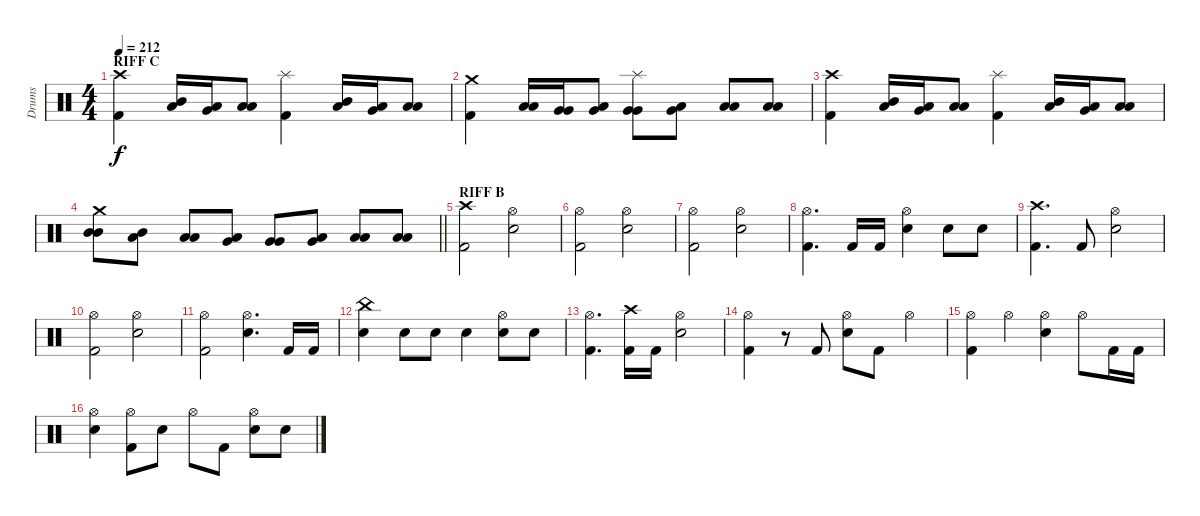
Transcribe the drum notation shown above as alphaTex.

\track ("Drums" "Drums") {instrument percussion}
\staff {score}
\articulation defaults
\ts (4 4)
\section ("" "RIFF C")
\tempo 212
\clef neutral
\ks c
("Crash high (hit)" "Kick (hit) 2").4{dy f} ("Low Tom (hit)" "Mid Tom (hit)").16 ("Very Low Tom (hit)" "Low Tom (hit)").16 ("Low Floor Tom (hit)" "Low Tom (hit)").8 ("Splash (hit)" "Kick (hit) 2").4 ("Low Tom (hit)" "Mid Tom (hit)").16 ("Very Low Tom (hit)" "Low Tom (hit)").16 ("Low Floor Tom (hit)" "Low Tom (hit)").8 |
("Crash medium (hit)" "Kick (hit) 2").4 ("Low Tom (hit)" "Low Tom (hit)").16 ("Very Low Tom (hit)" "Very Low Tom (hit)").16 ("Low Floor Tom (hit)" "Very Low Tom (hit)").8 ("Splash (hit)" "Very Low Tom (hit)" "Very Low Tom (hit)").8 ("Very Low Tom (hit)" "Low Floor Tom (hit)").8 ("Low Floor Tom (hit)" "Low Floor Tom (hit)").8 ("Low Floor Tom (hit)" "Low Floor Tom (hit)").8 |
("Crash high (hit)" "Kick (hit) 2").4 ("Low Tom (hit)" "Mid Tom (hit)").16 ("Very Low Tom (hit)" "Low Tom (hit)").16 ("Low Floor Tom (hit)" "Low Tom (hit)").8 ("Splash (hit)" "Kick (hit) 2").4 ("Low Tom (hit)" "Mid Tom (hit)").16 ("Very Low Tom (hit)" "Low Tom (hit)").16 ("Low Floor Tom (hit)" "Low Tom (hit)").8 |
\barLineRight lightlight
("Crash medium (hit)" "Mid Tom (hit)" "Mid Tom (hit)").8 ("Mid Tom (hit)" "Low Tom (hit)").8 ("Low Tom (hit)" "Low Tom (hit)").8 ("Low Floor Tom (hit)" "Very Low Tom (hit)").8 ("Very Low Tom (hit)" "Very Low Tom (hit)").8 ("Very Low Tom (hit)" "Low Floor Tom (hit)").8 ("Low Floor Tom (hit)" "Low Floor Tom (hit)").8 ("Low Floor Tom (hit)" "Low Floor Tom (hit)").8 |
\section ("" "RIFF B")
("Crash high (hit)" "Kick (hit) 2").2 ("Hi-Hat (open)" "Snare (hit) 2").2 |
("Hi-Hat (open)" "Kick (hit) 2").2 ("Hi-Hat (open)" "Snare (hit) 2").2 |
("Hi-Hat (open)" "Kick (hit) 2").2 ("Hi-Hat (open)" "Snare (hit) 2").2 |
("Hi-Hat (open)" "Kick (hit) 2").4{d} "Kick (hit) 2".16 "Kick (hit) 2".16 ("Hi-Hat (open)" "Snare (hit) 2").4 "Snare (hit) 2".8 "Snare (hit) 2".8 |
("Crash high (hit)" "Kick (hit) 2").4{d} "Kick (hit) 2".8 ("Hi-Hat (open)" "Snare (hit) 2").2 |
("Hi-Hat (open)" "Kick (hit) 2").2 ("Hi-Hat (open)" "Snare (hit) 2").2 |
("Hi-Hat (open)" "Kick (hit) 2").2 ("Hi-Hat (open)" "Snare (hit) 2").4{d} "Kick (hit) 2".16 "Kick (hit) 2".16 |
("China (hit)" "Snare (hit) 2").4 "Snare (hit) 2".8 "Snare (hit) 2".8 "Snare (hit) 2".4 ("Hi-Hat (open)" "Snare (hit) 2").8 "Snare (hit) 2".8 |
("Hi-Hat (open)" "Kick (hit) 2").4{d} ("Crash high (hit)" "Kick (hit) 2").16 "Kick (hit) 2".16 ("Hi-Hat (open)" "Snare (hit) 2").2 |
("Hi-Hat (open)" "Kick (hit) 2").4 r.8 "Kick (hit) 2".8 ("Hi-Hat (open)" "Snare (hit) 2").8 "Kick (hit) 2".8 "Hi-Hat (open)".4 |
("Hi-Hat (open)" "Kick (hit) 2").4 "Hi-Hat (open)".4 ("Hi-Hat (open)" "Snare (hit) 2").4 "Hi-Hat (open)".8 "Kick (hit) 2".16 "Kick (hit) 2".16 |
("Hi-Hat (open)" "Snare (hit) 2").4 ("Hi-Hat (open)" "Kick (hit) 2").8 "Snare (hit) 2".8 "Hi-Hat (open)".8 "Kick (hit) 2".8 ("Hi-Hat (open)" "Snare (hit) 2").8 "Snare (hit) 2".8
